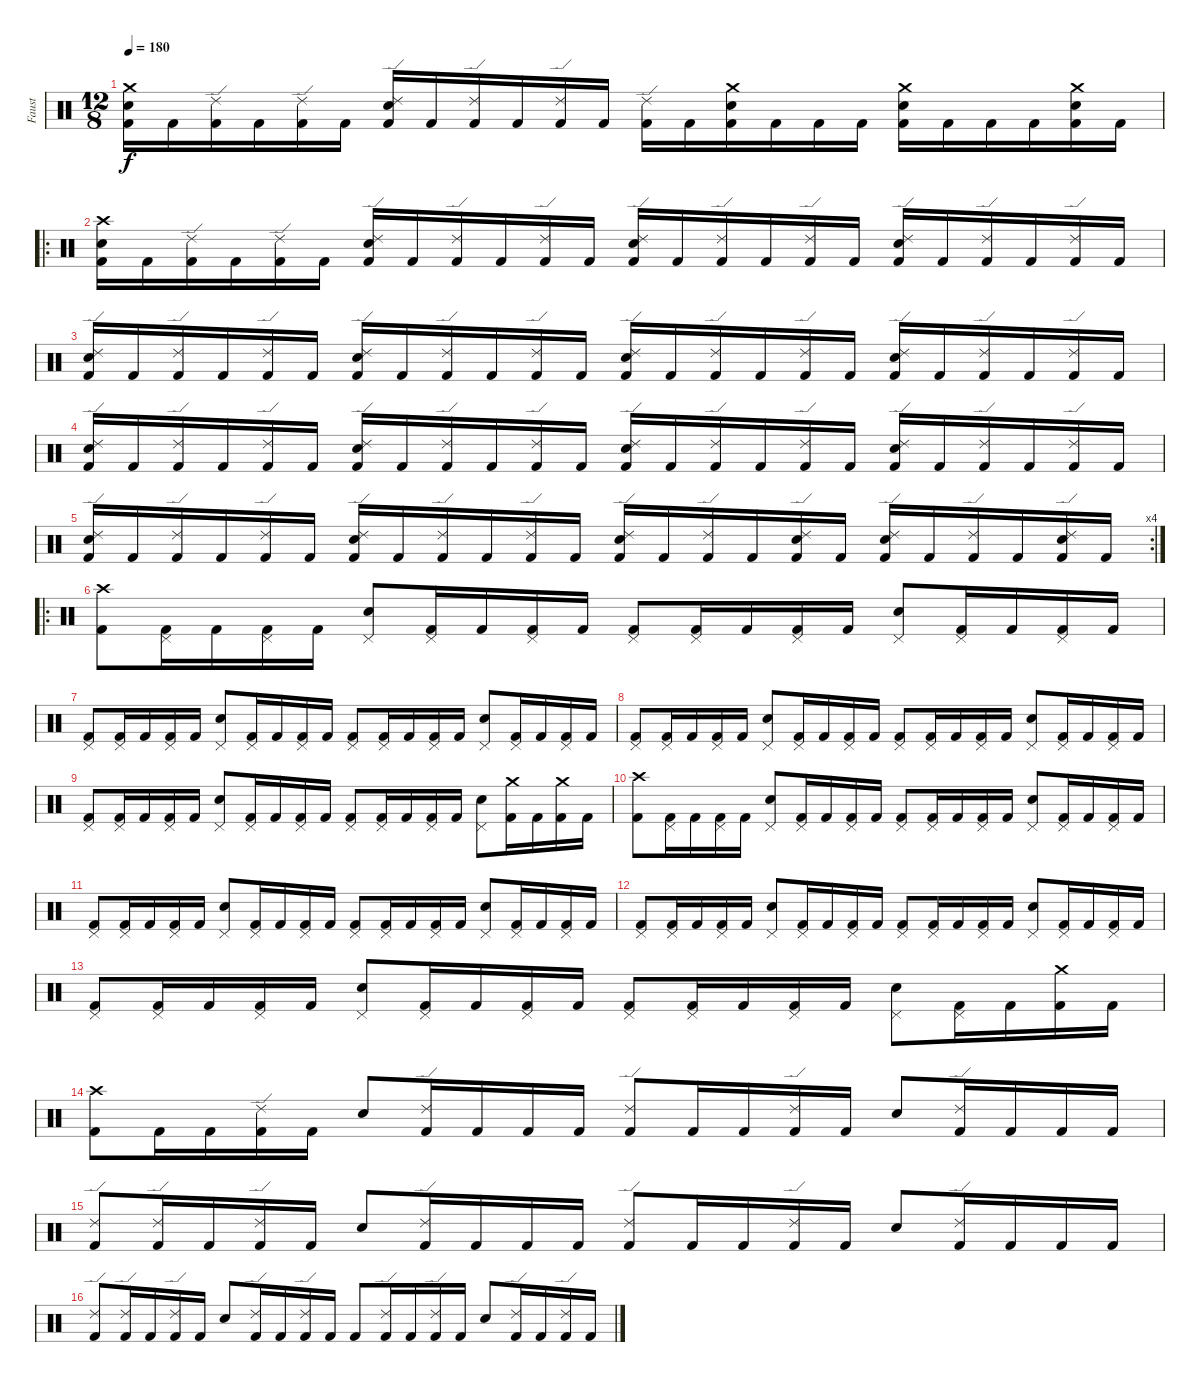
\track ("Faust" "Faust") {instrument percussion}
\staff {score}
\articulation defaults
\ts (12 8)
\tempo 180
\clef neutral
\ks c
("Crash medium (hit)" "Electric Snare (hit)" "Kick (hit) 2").16{dy f} "Kick (hit) 2".16 ("Ride (edge) 2" "Kick (hit) 2").16 "Kick (hit) 2".16 ("Ride (edge) 2" "Kick (hit) 2").16 "Kick (hit) 2".16 ("Ride (edge) 2" "Electric Snare (hit)" "Kick (hit) 2").16 "Kick (hit) 2".16 ("Ride (edge) 2" "Kick (hit) 2").16 "Kick (hit) 2".16 ("Ride (edge) 2" "Kick (hit) 2").16 "Kick (hit) 2".16 ("Ride (edge) 2" "Kick (hit) 2").16 "Kick (hit) 2".16 ("Crash medium (hit)" "Electric Snare (hit)" "Kick (hit) 2").16 "Kick (hit) 2".16 "Kick (hit) 2".16 "Kick (hit) 2".16 ("Crash medium (hit)" "Electric Snare (hit)" "Kick (hit) 2").16 "Kick (hit) 2".16 "Kick (hit) 2".16 "Kick (hit) 2".16 ("Crash medium (hit)" "Electric Snare (hit)" "Kick (hit) 2").16 "Kick (hit) 2".16 |
\ro
("Crash high (hit)" "Electric Snare (hit)" "Kick (hit) 2").16 "Kick (hit) 2".16 ("Ride (edge) 2" "Kick (hit) 2").16 "Kick (hit) 2".16 ("Ride (edge) 2" "Kick (hit) 2").16 "Kick (hit) 2".16 ("Ride (edge) 2" "Electric Snare (hit)" "Kick (hit) 2").16 "Kick (hit) 2".16 ("Ride (edge) 2" "Kick (hit) 2").16 "Kick (hit) 2".16 ("Ride (edge) 2" "Kick (hit) 2").16 "Kick (hit) 2".16 ("Ride (edge) 2" "Electric Snare (hit)" "Kick (hit) 2").16 "Kick (hit) 2".16 ("Ride (edge) 2" "Kick (hit) 2").16 "Kick (hit) 2".16 ("Ride (edge) 2" "Kick (hit) 2").16 "Kick (hit) 2".16 ("Ride (edge) 2" "Electric Snare (hit)" "Kick (hit) 2").16 "Kick (hit) 2".16 ("Ride (edge) 2" "Kick (hit) 2").16 "Kick (hit) 2".16 ("Ride (edge) 2" "Kick (hit) 2").16 "Kick (hit) 2".16 |
("Ride (edge) 2" "Electric Snare (hit)" "Kick (hit) 2").16 "Kick (hit) 2".16 ("Ride (edge) 2" "Kick (hit) 2").16 "Kick (hit) 2".16 ("Ride (edge) 2" "Kick (hit) 2").16 "Kick (hit) 2".16 ("Ride (edge) 2" "Electric Snare (hit)" "Kick (hit) 2").16 "Kick (hit) 2".16 ("Ride (edge) 2" "Kick (hit) 2").16 "Kick (hit) 2".16 ("Ride (edge) 2" "Kick (hit) 2").16 "Kick (hit) 2".16 ("Ride (edge) 2" "Electric Snare (hit)" "Kick (hit) 2").16 "Kick (hit) 2".16 ("Ride (edge) 2" "Kick (hit) 2").16 "Kick (hit) 2".16 ("Ride (edge) 2" "Kick (hit) 2").16 "Kick (hit) 2".16 ("Ride (edge) 2" "Electric Snare (hit)" "Kick (hit) 2").16 "Kick (hit) 2".16 ("Ride (edge) 2" "Kick (hit) 2").16 "Kick (hit) 2".16 ("Ride (edge) 2" "Kick (hit) 2").16 "Kick (hit) 2".16 |
("Ride (edge) 2" "Electric Snare (hit)" "Kick (hit) 2").16 "Kick (hit) 2".16 ("Ride (edge) 2" "Kick (hit) 2").16 "Kick (hit) 2".16 ("Ride (edge) 2" "Kick (hit) 2").16 "Kick (hit) 2".16 ("Ride (edge) 2" "Electric Snare (hit)" "Kick (hit) 2").16 "Kick (hit) 2".16 ("Ride (edge) 2" "Kick (hit) 2").16 "Kick (hit) 2".16 ("Ride (edge) 2" "Kick (hit) 2").16 "Kick (hit) 2".16 ("Ride (edge) 2" "Electric Snare (hit)" "Kick (hit) 2").16 "Kick (hit) 2".16 ("Ride (edge) 2" "Kick (hit) 2").16 "Kick (hit) 2".16 ("Ride (edge) 2" "Kick (hit) 2").16 "Kick (hit) 2".16 ("Ride (edge) 2" "Electric Snare (hit)" "Kick (hit) 2").16 "Kick (hit) 2".16 ("Ride (edge) 2" "Kick (hit) 2").16 "Kick (hit) 2".16 ("Ride (edge) 2" "Kick (hit) 2").16 "Kick (hit) 2".16 |
\rc 4
("Ride (edge) 2" "Electric Snare (hit)" "Kick (hit) 2").16 "Kick (hit) 2".16 ("Ride (edge) 2" "Kick (hit) 2").16 "Kick (hit) 2".16 ("Ride (edge) 2" "Kick (hit) 2").16 "Kick (hit) 2".16 ("Ride (edge) 2" "Electric Snare (hit)" "Kick (hit) 2").16 "Kick (hit) 2".16 ("Ride (edge) 2" "Kick (hit) 2").16 "Kick (hit) 2".16 ("Ride (edge) 2" "Kick (hit) 2").16 "Kick (hit) 2".16 ("Ride (edge) 2" "Electric Snare (hit)" "Kick (hit) 2").16 "Kick (hit) 2".16 ("Ride (edge) 2" "Kick (hit) 2").16 "Kick (hit) 2".16 ("Ride (edge) 2" "Electric Snare (hit)" "Kick (hit) 2").16 "Kick (hit) 2".16 ("Ride (edge) 2" "Electric Snare (hit)" "Kick (hit) 2").16 "Kick (hit) 2".16 ("Ride (edge) 2" "Kick (hit) 2").16 "Kick (hit) 2".16 ("Ride (edge) 2" "Electric Snare (hit)" "Kick (hit) 2").16 "Kick (hit) 2".16 |
\ro
("Crash high (hit)" "Kick (hit) 2").8 ("Pedal Hi-Hat (hit)" "Kick (hit) 2").16 "Kick (hit) 2".16 ("Pedal Hi-Hat (hit)" "Kick (hit) 2").16 "Kick (hit) 2".16 ("Pedal Hi-Hat (hit)" "Electric Snare (hit)").8 ("Pedal Hi-Hat (hit)" "Kick (hit) 2").16 "Kick (hit) 2".16 ("Pedal Hi-Hat (hit)" "Kick (hit) 2").16 "Kick (hit) 2".16 ("Pedal Hi-Hat (hit)" "Kick (hit) 2").8 ("Pedal Hi-Hat (hit)" "Kick (hit) 2").16 "Kick (hit) 2".16 ("Pedal Hi-Hat (hit)" "Kick (hit) 2").16 "Kick (hit) 2".16 ("Pedal Hi-Hat (hit)" "Electric Snare (hit)").8 ("Pedal Hi-Hat (hit)" "Kick (hit) 2").16 "Kick (hit) 2".16 ("Pedal Hi-Hat (hit)" "Kick (hit) 2").16 "Kick (hit) 2".16 |
("Pedal Hi-Hat (hit)" "Kick (hit) 2").8 ("Pedal Hi-Hat (hit)" "Kick (hit) 2").16 "Kick (hit) 2".16 ("Pedal Hi-Hat (hit)" "Kick (hit) 2").16 "Kick (hit) 2".16 ("Pedal Hi-Hat (hit)" "Electric Snare (hit)").8 ("Pedal Hi-Hat (hit)" "Kick (hit) 2").16 "Kick (hit) 2".16 ("Pedal Hi-Hat (hit)" "Kick (hit) 2").16 "Kick (hit) 2".16 ("Pedal Hi-Hat (hit)" "Kick (hit) 2").8 ("Pedal Hi-Hat (hit)" "Kick (hit) 2").16 "Kick (hit) 2".16 ("Pedal Hi-Hat (hit)" "Kick (hit) 2").16 "Kick (hit) 2".16 ("Pedal Hi-Hat (hit)" "Electric Snare (hit)").8 ("Pedal Hi-Hat (hit)" "Kick (hit) 2").16 "Kick (hit) 2".16 ("Pedal Hi-Hat (hit)" "Kick (hit) 2").16 "Kick (hit) 2".16 |
("Pedal Hi-Hat (hit)" "Kick (hit) 2").8 ("Pedal Hi-Hat (hit)" "Kick (hit) 2").16 "Kick (hit) 2".16 ("Pedal Hi-Hat (hit)" "Kick (hit) 2").16 "Kick (hit) 2".16 ("Pedal Hi-Hat (hit)" "Electric Snare (hit)").8 ("Pedal Hi-Hat (hit)" "Kick (hit) 2").16 "Kick (hit) 2".16 ("Pedal Hi-Hat (hit)" "Kick (hit) 2").16 "Kick (hit) 2".16 ("Pedal Hi-Hat (hit)" "Kick (hit) 2").8 ("Pedal Hi-Hat (hit)" "Kick (hit) 2").16 "Kick (hit) 2".16 ("Pedal Hi-Hat (hit)" "Kick (hit) 2").16 "Kick (hit) 2".16 ("Pedal Hi-Hat (hit)" "Electric Snare (hit)").8 ("Pedal Hi-Hat (hit)" "Kick (hit) 2").16 "Kick (hit) 2".16 ("Pedal Hi-Hat (hit)" "Kick (hit) 2").16 "Kick (hit) 2".16 |
("Pedal Hi-Hat (hit)" "Kick (hit) 2").8 ("Pedal Hi-Hat (hit)" "Kick (hit) 2").16 "Kick (hit) 2".16 ("Pedal Hi-Hat (hit)" "Kick (hit) 2").16 "Kick (hit) 2".16 ("Pedal Hi-Hat (hit)" "Electric Snare (hit)").8 ("Pedal Hi-Hat (hit)" "Kick (hit) 2").16 "Kick (hit) 2".16 ("Pedal Hi-Hat (hit)" "Kick (hit) 2").16 "Kick (hit) 2".16 ("Pedal Hi-Hat (hit)" "Kick (hit) 2").8 ("Pedal Hi-Hat (hit)" "Kick (hit) 2").16 "Kick (hit) 2".16 ("Pedal Hi-Hat (hit)" "Kick (hit) 2").16 "Kick (hit) 2".16 ("Pedal Hi-Hat (hit)" "Electric Snare (hit)").8 ("Crash medium (hit)" "Kick (hit) 2").16 "Kick (hit) 2".16 ("Crash medium (hit)" "Kick (hit) 2").16 "Kick (hit) 2".16 |
("Crash high (hit)" "Kick (hit) 2").8 ("Pedal Hi-Hat (hit)" "Kick (hit) 2").16 "Kick (hit) 2".16 ("Pedal Hi-Hat (hit)" "Kick (hit) 2").16 "Kick (hit) 2".16 ("Pedal Hi-Hat (hit)" "Electric Snare (hit)").8 ("Pedal Hi-Hat (hit)" "Kick (hit) 2").16 "Kick (hit) 2".16 ("Pedal Hi-Hat (hit)" "Kick (hit) 2").16 "Kick (hit) 2".16 ("Pedal Hi-Hat (hit)" "Kick (hit) 2").8 ("Pedal Hi-Hat (hit)" "Kick (hit) 2").16 "Kick (hit) 2".16 ("Pedal Hi-Hat (hit)" "Kick (hit) 2").16 "Kick (hit) 2".16 ("Pedal Hi-Hat (hit)" "Electric Snare (hit)").8 ("Pedal Hi-Hat (hit)" "Kick (hit) 2").16 "Kick (hit) 2".16 ("Pedal Hi-Hat (hit)" "Kick (hit) 2").16 "Kick (hit) 2".16 |
("Pedal Hi-Hat (hit)" "Kick (hit) 2").8 ("Pedal Hi-Hat (hit)" "Kick (hit) 2").16 "Kick (hit) 2".16 ("Pedal Hi-Hat (hit)" "Kick (hit) 2").16 "Kick (hit) 2".16 ("Pedal Hi-Hat (hit)" "Electric Snare (hit)").8 ("Pedal Hi-Hat (hit)" "Kick (hit) 2").16 "Kick (hit) 2".16 ("Pedal Hi-Hat (hit)" "Kick (hit) 2").16 "Kick (hit) 2".16 ("Pedal Hi-Hat (hit)" "Kick (hit) 2").8 ("Pedal Hi-Hat (hit)" "Kick (hit) 2").16 "Kick (hit) 2".16 ("Pedal Hi-Hat (hit)" "Kick (hit) 2").16 "Kick (hit) 2".16 ("Pedal Hi-Hat (hit)" "Electric Snare (hit)").8 ("Pedal Hi-Hat (hit)" "Kick (hit) 2").16 "Kick (hit) 2".16 ("Pedal Hi-Hat (hit)" "Kick (hit) 2").16 "Kick (hit) 2".16 |
("Pedal Hi-Hat (hit)" "Kick (hit) 2").8 ("Pedal Hi-Hat (hit)" "Kick (hit) 2").16 "Kick (hit) 2".16 ("Pedal Hi-Hat (hit)" "Kick (hit) 2").16 "Kick (hit) 2".16 ("Pedal Hi-Hat (hit)" "Electric Snare (hit)").8 ("Pedal Hi-Hat (hit)" "Kick (hit) 2").16 "Kick (hit) 2".16 ("Pedal Hi-Hat (hit)" "Kick (hit) 2").16 "Kick (hit) 2".16 ("Pedal Hi-Hat (hit)" "Kick (hit) 2").8 ("Pedal Hi-Hat (hit)" "Kick (hit) 2").16 "Kick (hit) 2".16 ("Pedal Hi-Hat (hit)" "Kick (hit) 2").16 "Kick (hit) 2".16 ("Pedal Hi-Hat (hit)" "Electric Snare (hit)").8 ("Pedal Hi-Hat (hit)" "Kick (hit) 2").16 "Kick (hit) 2".16 ("Pedal Hi-Hat (hit)" "Kick (hit) 2").16 "Kick (hit) 2".16 |
("Pedal Hi-Hat (hit)" "Kick (hit) 2").8 ("Pedal Hi-Hat (hit)" "Kick (hit) 2").16 "Kick (hit) 2".16 ("Pedal Hi-Hat (hit)" "Kick (hit) 2").16 "Kick (hit) 2".16 ("Pedal Hi-Hat (hit)" "Electric Snare (hit)").8 ("Pedal Hi-Hat (hit)" "Kick (hit) 2").16 "Kick (hit) 2".16 ("Pedal Hi-Hat (hit)" "Kick (hit) 2").16 "Kick (hit) 2".16 ("Pedal Hi-Hat (hit)" "Kick (hit) 2").8 ("Pedal Hi-Hat (hit)" "Kick (hit) 2").16 "Kick (hit) 2".16 ("Pedal Hi-Hat (hit)" "Kick (hit) 2").16 "Kick (hit) 2".16 ("Pedal Hi-Hat (hit)" "Electric Snare (hit)").8 ("Pedal Hi-Hat (hit)" "Kick (hit) 2").16 "Kick (hit) 2".16 ("Crash medium (hit)" "Kick (hit) 2").16 "Kick (hit) 2".16 |
("Crash high (hit)" "Kick (hit) 2").8 "Kick (hit) 2".16 "Kick (hit) 2".16 ("Ride (edge) 2" "Kick (hit) 2").16 "Kick (hit) 2".16 "Electric Snare (hit)".8 ("Ride (edge) 2" "Kick (hit) 2").16 "Kick (hit) 2".16 "Kick (hit) 2".16 "Kick (hit) 2".16 ("Ride (edge) 2" "Kick (hit) 2").8 "Kick (hit) 2".16 "Kick (hit) 2".16 ("Ride (edge) 2" "Kick (hit) 2").16 "Kick (hit) 2".16 "Electric Snare (hit)".8 ("Ride (edge) 2" "Kick (hit) 2").16 "Kick (hit) 2".16 "Kick (hit) 2".16 "Kick (hit) 2".16 |
("Ride (edge) 2" "Kick (hit) 2").8 ("Ride (edge) 2" "Kick (hit) 2").16 "Kick (hit) 2".16 ("Ride (edge) 2" "Kick (hit) 2").16 "Kick (hit) 2".16 "Electric Snare (hit)".8 ("Ride (edge) 2" "Kick (hit) 2").16 "Kick (hit) 2".16 "Kick (hit) 2".16 "Kick (hit) 2".16 ("Ride (edge) 2" "Kick (hit) 2").8 "Kick (hit) 2".16 "Kick (hit) 2".16 ("Ride (edge) 2" "Kick (hit) 2").16 "Kick (hit) 2".16 "Electric Snare (hit)".8 ("Ride (edge) 2" "Kick (hit) 2").16 "Kick (hit) 2".16 "Kick (hit) 2".16 "Kick (hit) 2".16 |
("Ride (edge) 2" "Kick (hit) 2").8 ("Ride (edge) 2" "Kick (hit) 2").16 "Kick (hit) 2".16 ("Ride (edge) 2" "Kick (hit) 2").16 "Kick (hit) 2".16 "Electric Snare (hit)".8 ("Ride (edge) 2" "Kick (hit) 2").16 "Kick (hit) 2".16 ("Ride (edge) 2" "Kick (hit) 2").16 "Kick (hit) 2".16 "Kick (hit) 2".8 ("Ride (edge) 2" "Kick (hit) 2").16 "Kick (hit) 2".16 ("Ride (edge) 2" "Kick (hit) 2").16 "Kick (hit) 2".16 "Electric Snare (hit)".8 ("Ride (edge) 2" "Kick (hit) 2").16 "Kick (hit) 2".16 ("Ride (edge) 2" "Kick (hit) 2").16 "Kick (hit) 2".16
